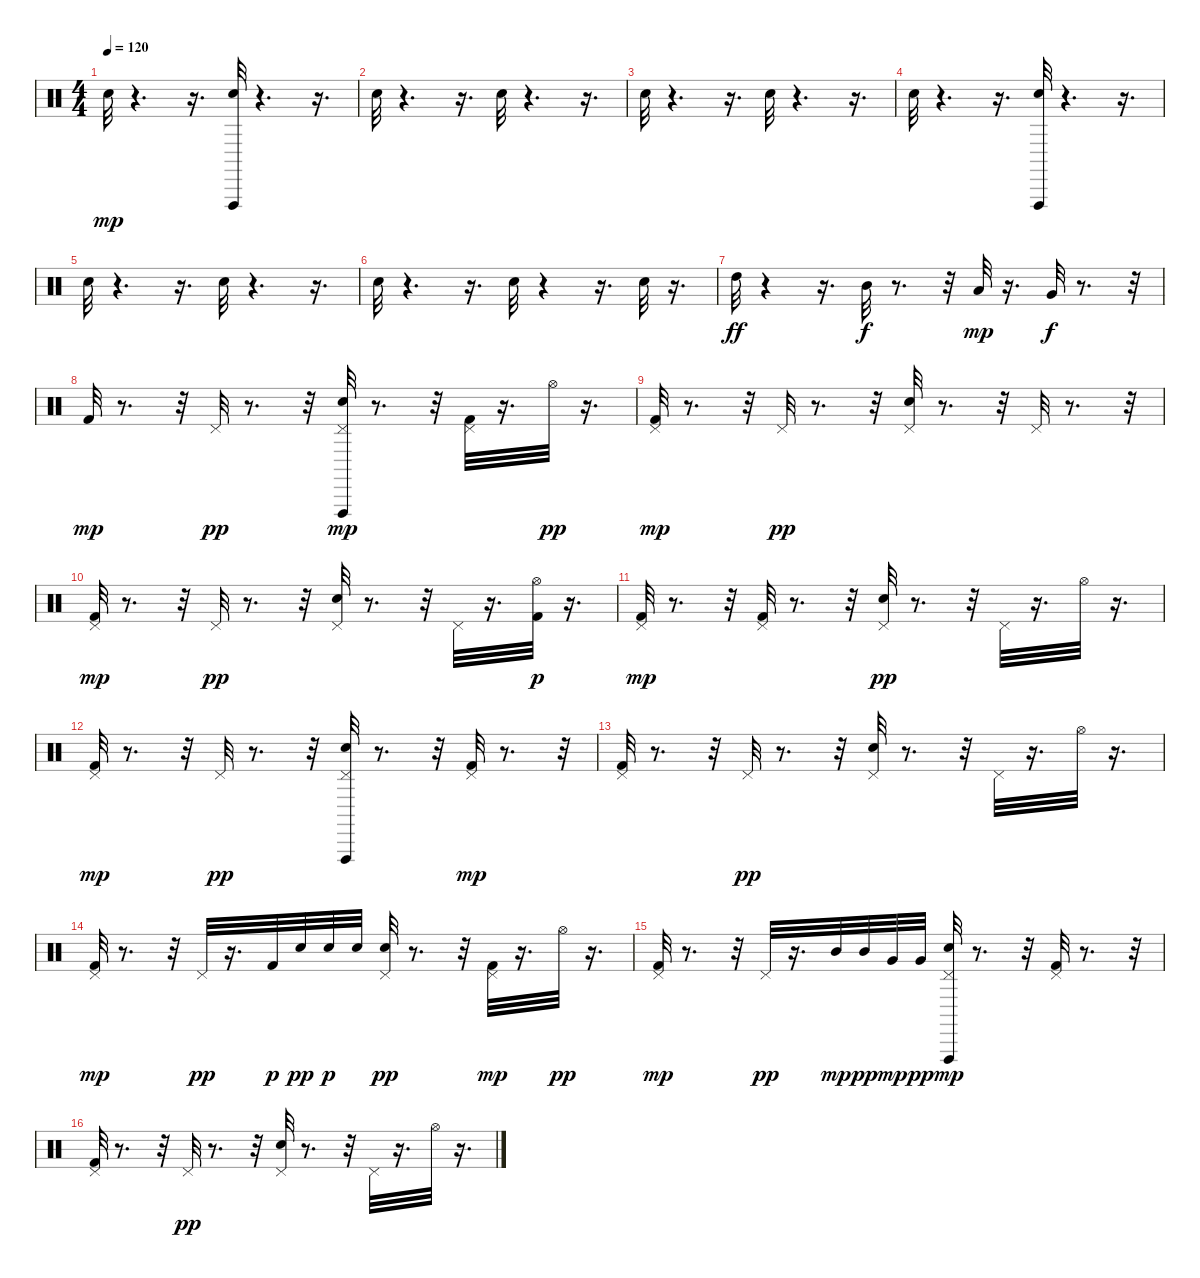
\track "" {instrument percussion}
\staff {score}
\articulation defaults
\ts (4 4)
\tempo 120
\clef neutral
\ks c "Hand Clap (hit)".32{dy mp}
r.4{d} r.16{d} ("Hand Clap (hit)" "Vibraslap (hit)").32 r.4{d} r.16{d} |
"Hand Clap (hit)".32 r.4{d} r.16{d} "Hand Clap (hit)".32 r.4{d} r.16{d} |
"Hand Clap (hit)".32 r.4{d} r.16{d} "Hand Clap (hit)".32 r.4{d} r.16{d} |
"Hand Clap (hit)".32 r.4{d} r.16{d} ("Hand Clap (hit)" "Vibraslap (hit)").32 r.4{d} r.16{d} |
"Hand Clap (hit)".32 r.4{d} r.16{d} "Hand Clap (hit)".32 r.4{d} r.16{d} |
"Hand Clap (hit)".32 r.4{d} r.16{d} "Hand Clap (hit)".32 r.4 r.16{d} "Hand Clap (hit)".32 r.16{d} |
"High Tom (hit)".32{dy ff} r.4 r.16{d} "Mid Tom (hit)".32{dy f} r.8{d} r.32 "Low Tom (hit)".32{dy mp} r.16{d} "Very Low Tom (hit)".32{dy f} r.8{d} r.32 |
"Kick (hit) 2".32{dy mp} r.8{d} r.32 "Pedal Hi-Hat (hit)".32{dy pp} r.8{d} r.32 ("Pedal Hi-Hat (hit)" "Vibraslap (hit)" "Snare (hit) 2").32{dy mp} r.8{d} r.32 ("Pedal Hi-Hat (hit)" "Kick (hit) 2").32 r.16{d} "Hi-Hat (open)".32{dy pp} r.16{d} |
("Pedal Hi-Hat (hit)" "Kick (hit) 2").32{dy mp} r.8{d} r.32 "Pedal Hi-Hat (hit)".32{dy pp} r.8{d} r.32 ("Pedal Hi-Hat (hit)" "Snare (hit) 2").32 r.8{d} r.32 "Pedal Hi-Hat (hit)".32 r.8{d} r.32 |
("Pedal Hi-Hat (hit)" "Kick (hit) 2").32{dy mp} r.8{d} r.32 "Pedal Hi-Hat (hit)".32{dy pp} r.8{d} r.32 ("Pedal Hi-Hat (hit)" "Snare (hit) 2").32 r.8{d} r.32 "Pedal Hi-Hat (hit)".32 r.16{d} ("Hi-Hat (open)" "Kick (hit) 2").32{dy p} r.16{d} |
("Pedal Hi-Hat (hit)" "Kick (hit) 2").32{dy mp} r.8{d} r.32 ("Pedal Hi-Hat (hit)" "Kick (hit) 2").32 r.8{d} r.32 ("Pedal Hi-Hat (hit)" "Snare (hit) 2").32{dy pp} r.8{d} r.32 "Pedal Hi-Hat (hit)".32 r.16{d} "Hi-Hat (open)".32 r.16{d} |
("Pedal Hi-Hat (hit)" "Kick (hit) 2").32{dy mp} r.8{d} r.32 "Pedal Hi-Hat (hit)".32{dy pp} r.8{d} r.32 ("Vibraslap (hit)" "Pedal Hi-Hat (hit)" "Snare (hit) 2").32 r.8{d} r.32 ("Pedal Hi-Hat (hit)" "Kick (hit) 2").32{dy mp} r.8{d} r.32 |
("Pedal Hi-Hat (hit)" "Kick (hit) 2").32 r.8{d} r.32 "Pedal Hi-Hat (hit)".32{dy pp} r.8{d} r.32 ("Pedal Hi-Hat (hit)" "Snare (hit) 2").32 r.8{d} r.32 "Pedal Hi-Hat (hit)".32 r.16{d} "Hi-Hat (open)".32 r.16{d} |
("Pedal Hi-Hat (hit)" "Kick (hit) 2").32{dy mp} r.8{d} r.32 "Pedal Hi-Hat (hit)".32{dy pp} r.16{d} "Kick (hit) 2".32{dy p} "Snare (hit) 2".32{dy pp} "Snare (hit) 2".32{dy p} "Snare (hit) 2".32 ("Pedal Hi-Hat (hit)" "Snare (hit) 2").32{dy pp} r.8{d} r.32 ("Pedal Hi-Hat (hit)" "Kick (hit) 2").32{dy mp} r.16{d} "Hi-Hat (open)".32{dy pp} r.16{d} |
("Pedal Hi-Hat (hit)" "Kick (hit) 2").32{dy mp} r.8{d} r.32 "Pedal Hi-Hat (hit)".32{dy pp} r.16{d} "Mid Tom (hit)".32{dy mp} "Mid Tom (hit)".32{dy pp} "Very Low Tom (hit)".32{dy mp} "Very Low Tom (hit)".32{dy pp} ("Pedal Hi-Hat (hit)" "Vibraslap (hit)" "Snare (hit) 2").32{dy mp} r.8{d} r.32 ("Pedal Hi-Hat (hit)" "Kick (hit) 2").32 r.8{d} r.32 |
("Pedal Hi-Hat (hit)" "Kick (hit) 2").32 r.8{d} r.32 "Pedal Hi-Hat (hit)".32{dy pp} r.8{d} r.32 ("Pedal Hi-Hat (hit)" "Snare (hit) 2").32 r.8{d} r.32 "Pedal Hi-Hat (hit)".32 r.16{d} "Hi-Hat (open)".32 r.16{d}
